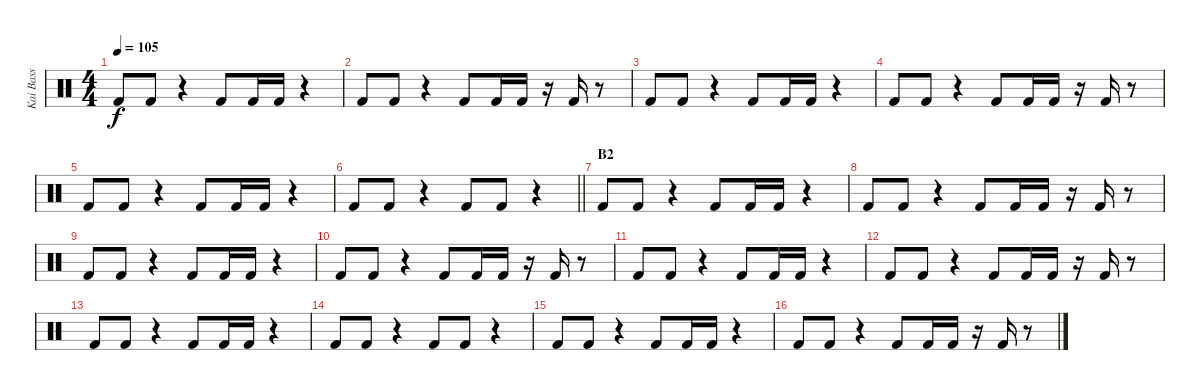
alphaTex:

\track ("Kai Bass" "Kai Bass") {instrument percussion}
\staff {score}
\articulation defaults
\ts (4 4)
\tempo 105
\clef neutral
\ks c "Kick (hit) 2".8{dy f} "Kick (hit) 2".8
r.4 "Kick (hit) 2".8 "Kick (hit) 2".16 "Kick (hit) 2".16 r.4 |
"Kick (hit) 2".8 "Kick (hit) 2".8 r.4 "Kick (hit) 2".8 "Kick (hit) 2".16 "Kick (hit) 2".16 r.16 "Kick (hit) 2".16 r.8 |
"Kick (hit) 2".8 "Kick (hit) 2".8 r.4 "Kick (hit) 2".8 "Kick (hit) 2".16 "Kick (hit) 2".16 r.4 |
"Kick (hit) 2".8 "Kick (hit) 2".8 r.4 "Kick (hit) 2".8 "Kick (hit) 2".16 "Kick (hit) 2".16 r.16 "Kick (hit) 2".16 r.8 |
"Kick (hit) 2".8 "Kick (hit) 2".8 r.4 "Kick (hit) 2".8 "Kick (hit) 2".16 "Kick (hit) 2".16 r.4 |
\barLineRight lightlight "Kick (hit) 2".8 "Kick (hit) 2".8
r.4 "Kick (hit) 2".8 "Kick (hit) 2".8 r.4 |
\section ("" "B2")
"Kick (hit) 2".8 "Kick (hit) 2".8 r.4 "Kick (hit) 2".8 "Kick (hit) 2".16 "Kick (hit) 2".16 r.4 |
"Kick (hit) 2".8 "Kick (hit) 2".8 r.4 "Kick (hit) 2".8 "Kick (hit) 2".16 "Kick (hit) 2".16 r.16 "Kick (hit) 2".16 r.8 |
"Kick (hit) 2".8 "Kick (hit) 2".8 r.4 "Kick (hit) 2".8 "Kick (hit) 2".16 "Kick (hit) 2".16 r.4 |
"Kick (hit) 2".8 "Kick (hit) 2".8 r.4 "Kick (hit) 2".8 "Kick (hit) 2".16 "Kick (hit) 2".16 r.16 "Kick (hit) 2".16 r.8 |
"Kick (hit) 2".8 "Kick (hit) 2".8 r.4 "Kick (hit) 2".8 "Kick (hit) 2".16 "Kick (hit) 2".16 r.4 |
"Kick (hit) 2".8 "Kick (hit) 2".8 r.4 "Kick (hit) 2".8 "Kick (hit) 2".16 "Kick (hit) 2".16 r.16 "Kick (hit) 2".16 r.8 |
"Kick (hit) 2".8 "Kick (hit) 2".8 r.4 "Kick (hit) 2".8 "Kick (hit) 2".16 "Kick (hit) 2".16 r.4 |
"Kick (hit) 2".8 "Kick (hit) 2".8 r.4 "Kick (hit) 2".8 "Kick (hit) 2".8 r.4 |
"Kick (hit) 2".8 "Kick (hit) 2".8 r.4 "Kick (hit) 2".8 "Kick (hit) 2".16 "Kick (hit) 2".16 r.4 |
"Kick (hit) 2".8 "Kick (hit) 2".8 r.4 "Kick (hit) 2".8 "Kick (hit) 2".16 "Kick (hit) 2".16 r.16 "Kick (hit) 2".16 r.8
